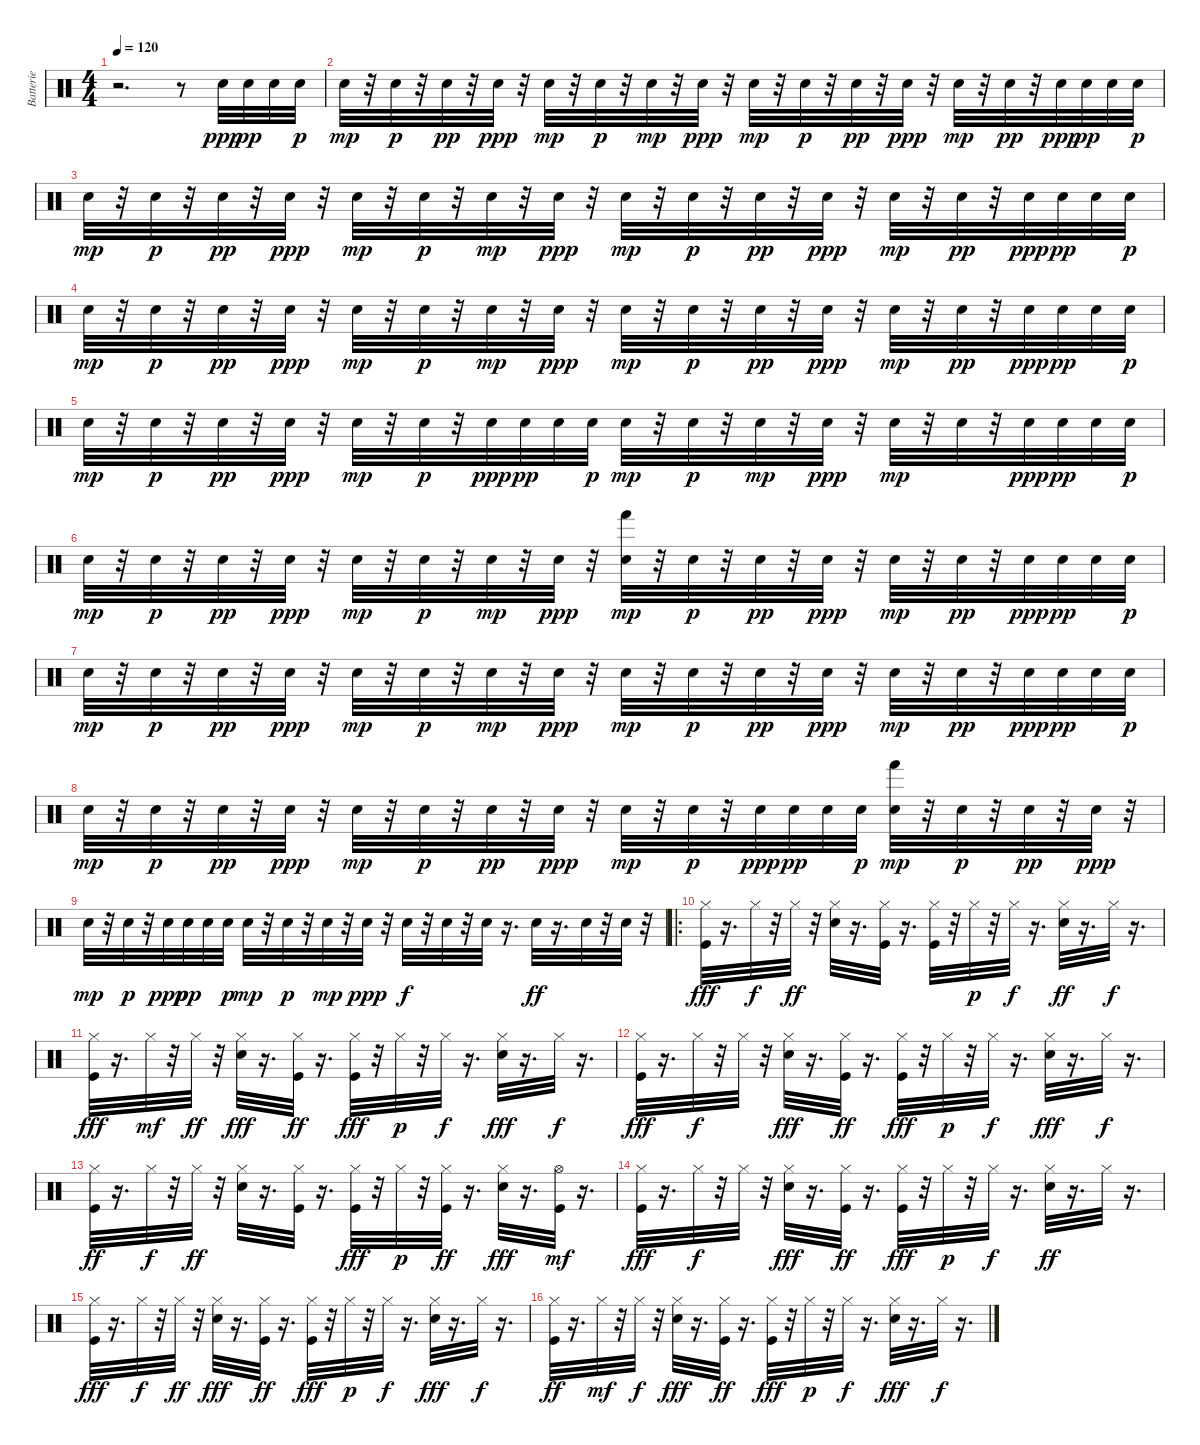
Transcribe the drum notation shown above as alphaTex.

\track ("Batterie" "Batterie") {instrument percussion}
\staff {score}
\articulation defaults
\ts (4 4)
\tempo 120
\clef neutral
\ks c
r.2{d dy ppp} r.8 "Electric Snare (hit)".32 "Electric Snare (hit)".32{dy pp} "Electric Snare (hit)".32 "Electric Snare (hit)".32{dy p} |
"Snare (hit) 2".32{dy mp} r.32 "Electric Snare (hit)".32{dy p} r.32 "Snare (hit) 2".32{dy pp} r.32 "Electric Snare (hit)".32{dy ppp} r.32 "Snare (hit) 2".32{dy mp} r.32 "Electric Snare (hit)".32{dy p} r.32 "Snare (hit) 2".32{dy mp} r.32 "Electric Snare (hit)".32{dy ppp} r.32 "Snare (hit) 2".32{dy mp} r.32 "Electric Snare (hit)".32{dy p} r.32 "Snare (hit) 2".32{dy pp} r.32 "Electric Snare (hit)".32{dy ppp} r.32 "Snare (hit) 2".32{dy mp} r.32 "Electric Snare (hit)".32{dy pp} r.32 "Electric Snare (hit)".32{dy ppp} "Electric Snare (hit)".32{dy pp} "Electric Snare (hit)".32 "Electric Snare (hit)".32{dy p} |
"Snare (hit) 2".32{dy mp} r.32 "Electric Snare (hit)".32{dy p} r.32 "Snare (hit) 2".32{dy pp} r.32 "Electric Snare (hit)".32{dy ppp} r.32 "Snare (hit) 2".32{dy mp} r.32 "Electric Snare (hit)".32{dy p} r.32 "Snare (hit) 2".32{dy mp} r.32 "Electric Snare (hit)".32{dy ppp} r.32 "Snare (hit) 2".32{dy mp} r.32 "Electric Snare (hit)".32{dy p} r.32 "Snare (hit) 2".32{dy pp} r.32 "Electric Snare (hit)".32{dy ppp} r.32 "Snare (hit) 2".32{dy mp} r.32 "Electric Snare (hit)".32{dy pp} r.32 "Electric Snare (hit)".32{dy ppp} "Electric Snare (hit)".32{dy pp} "Electric Snare (hit)".32 "Electric Snare (hit)".32{dy p} |
"Snare (hit) 2".32{dy mp} r.32 "Electric Snare (hit)".32{dy p} r.32 "Snare (hit) 2".32{dy pp} r.32 "Electric Snare (hit)".32{dy ppp} r.32 "Snare (hit) 2".32{dy mp} r.32 "Electric Snare (hit)".32{dy p} r.32 "Snare (hit) 2".32{dy mp} r.32 "Electric Snare (hit)".32{dy ppp} r.32 "Snare (hit) 2".32{dy mp} r.32 "Electric Snare (hit)".32{dy p} r.32 "Snare (hit) 2".32{dy pp} r.32 "Electric Snare (hit)".32{dy ppp} r.32 "Snare (hit) 2".32{dy mp} r.32 "Electric Snare (hit)".32{dy pp} r.32 "Electric Snare (hit)".32{dy ppp} "Electric Snare (hit)".32{dy pp} "Electric Snare (hit)".32 "Electric Snare (hit)".32{dy p} |
"Snare (hit) 2".32{dy mp} r.32 "Electric Snare (hit)".32{dy p} r.32 "Snare (hit) 2".32{dy pp} r.32 "Electric Snare (hit)".32{dy ppp} r.32 "Snare (hit) 2".32{dy mp} r.32 "Electric Snare (hit)".32{dy p} r.32 "Electric Snare (hit)".32{dy ppp} "Electric Snare (hit)".32{dy pp} "Electric Snare (hit)".32 "Electric Snare (hit)".32{dy p} "Snare (hit) 2".32{dy mp} r.32 "Electric Snare (hit)".32{dy p} r.32 "Snare (hit) 2".32{dy mp} r.32 "Electric Snare (hit)".32{dy ppp} r.32 "Snare (hit) 2".32{dy mp} r.32 "Electric Snare (hit)".32 r.32 "Electric Snare (hit)".32{dy ppp} "Electric Snare (hit)".32{dy pp} "Electric Snare (hit)".32 "Electric Snare (hit)".32{dy p} |
"Snare (hit) 2".32{dy mp} r.32 "Electric Snare (hit)".32{dy p} r.32 "Snare (hit) 2".32{dy pp} r.32 "Electric Snare (hit)".32{dy ppp} r.32 "Snare (hit) 2".32{dy mp} r.32 "Electric Snare (hit)".32{dy p} r.32 "Snare (hit) 2".32{dy mp} r.32 "Electric Snare (hit)".32{dy ppp} r.32 ("Snare (hit) 2" "Hand (hit)").32{dy mp} r.32 "Electric Snare (hit)".32{dy p} r.32 "Snare (hit) 2".32{dy pp} r.32 "Electric Snare (hit)".32{dy ppp} r.32 "Snare (hit) 2".32{dy mp} r.32 "Electric Snare (hit)".32{dy pp} r.32 "Electric Snare (hit)".32{dy ppp} "Electric Snare (hit)".32{dy pp} "Electric Snare (hit)".32 "Electric Snare (hit)".32{dy p} |
"Snare (hit) 2".32{dy mp} r.32 "Electric Snare (hit)".32{dy p} r.32 "Snare (hit) 2".32{dy pp} r.32 "Electric Snare (hit)".32{dy ppp} r.32 "Snare (hit) 2".32{dy mp} r.32 "Electric Snare (hit)".32{dy p} r.32 "Snare (hit) 2".32{dy mp} r.32 "Electric Snare (hit)".32{dy ppp} r.32 "Snare (hit) 2".32{dy mp} r.32 "Electric Snare (hit)".32{dy p} r.32 "Snare (hit) 2".32{dy pp} r.32 "Electric Snare (hit)".32{dy ppp} r.32 "Snare (hit) 2".32{dy mp} r.32 "Electric Snare (hit)".32{dy pp} r.32 "Electric Snare (hit)".32{dy ppp} "Electric Snare (hit)".32{dy pp} "Electric Snare (hit)".32 "Electric Snare (hit)".32{dy p} |
"Snare (hit) 2".32{dy mp} r.32 "Electric Snare (hit)".32{dy p} r.32 "Snare (hit) 2".32{dy pp} r.32 "Electric Snare (hit)".32{dy ppp} r.32 "Snare (hit) 2".32{dy mp} r.32 "Electric Snare (hit)".32{dy p} r.32 "Snare (hit) 2".32{dy pp} r.32 "Electric Snare (hit)".32{dy ppp} r.32 "Snare (hit) 2".32{dy mp} r.32 "Electric Snare (hit)".32{dy p} r.32 "Electric Snare (hit)".32{dy ppp} "Electric Snare (hit)".32{dy pp} "Electric Snare (hit)".32 "Electric Snare (hit)".32{dy p} ("Hand (hit)" "Snare (hit) 2").32{dy mp} r.32 "Electric Snare (hit)".32{dy p} r.32 "Snare (hit) 2".32{dy pp} r.32 "Electric Snare (hit)".32{dy ppp} r.32 |
"Snare (hit) 2".32{dy mp} r.32 "Electric Snare (hit)".32{dy p} r.32 "Electric Snare (hit)".32{dy ppp} "Electric Snare (hit)".32{dy pp} "Electric Snare (hit)".32 "Electric Snare (hit)".32{dy p} "Snare (hit) 2".32{dy mp} r.32 "Electric Snare (hit)".32{dy p} r.32 "Snare (hit) 2".32{dy mp} r.32 "Electric Snare (hit)".32{dy ppp} r.32 "Electric Snare (hit)".32{dy f} r.32 "Electric Snare (hit)".32 r.32 "Electric Snare (hit)".32 r.16{d} "Electric Snare (hit)".32{dy ff} r.16{d} "Electric Snare (hit)".32 r.32 "Electric Snare (hit)".32 r.32 |
\ro
("Hi-Hat (closed)" "Kick (hit)").32{dy fff} r.16{d} "Hi-Hat (closed)".32{dy f} r.32 "Hi-Hat (closed)".32{dy ff} r.32 ("Electric Snare (hit)" "Hi-Hat (closed)").32 r.16{d} ("Kick (hit)" "Hi-Hat (closed)").32 r.16{d} ("Kick (hit)" "Hi-Hat (closed)").32 r.32 "Hi-Hat (closed)".32{dy p} r.32 "Hi-Hat (closed)".32{dy f} r.16{d} ("Electric Snare (hit)" "Hi-Hat (closed)").32{dy ff} r.16{d} "Hi-Hat (closed)".32{dy f} r.16{d} |
("Hi-Hat (closed)" "Kick (hit)").32{dy fff} r.16{d} "Hi-Hat (closed)".32{dy mf} r.32 "Hi-Hat (closed)".32{dy ff} r.32 ("Hi-Hat (closed)" "Electric Snare (hit)").32{dy fff} r.16{d} ("Hi-Hat (closed)" "Kick (hit)").32{dy ff} r.16{d} ("Kick (hit)" "Hi-Hat (closed)").32{dy fff} r.32 "Hi-Hat (closed)".32{dy p} r.32 "Hi-Hat (closed)".32{dy f} r.16{d} ("Hi-Hat (closed)" "Electric Snare (hit)").32{dy fff} r.16{d} "Hi-Hat (closed)".32{dy f} r.16{d} |
("Hi-Hat (closed)" "Kick (hit)").32{dy fff} r.16{d} "Hi-Hat (closed)".32{dy f} r.32 "Hi-Hat (closed)".32 r.32 ("Hi-Hat (closed)" "Electric Snare (hit)").32{dy fff} r.16{d} ("Kick (hit)" "Hi-Hat (closed)").32{dy ff} r.16{d} ("Kick (hit)" "Hi-Hat (closed)").32{dy fff} r.32 "Hi-Hat (closed)".32{dy p} r.32 "Hi-Hat (closed)".32{dy f} r.16{d} ("Hi-Hat (closed)" "Electric Snare (hit)").32{dy fff} r.16{d} "Hi-Hat (closed)".32{dy f} r.16{d} |
("Kick (hit)" "Hi-Hat (closed)").32{dy ff} r.16{d} "Hi-Hat (closed)".32{dy f} r.32 "Hi-Hat (closed)".32{dy ff} r.32 ("Electric Snare (hit)" "Hi-Hat (closed)").32 r.16{d} ("Hi-Hat (closed)" "Kick (hit)").32 r.16{d} ("Hi-Hat (closed)" "Kick (hit)").32{dy fff} r.32 "Hi-Hat (closed)".32{dy p} r.32 ("Hi-Hat (closed)" "Kick (hit)").32{dy ff} r.16{d} ("Hi-Hat (closed)" "Electric Snare (hit)").32{dy fff} r.16{d} ("Kick (hit)" "Hi-Hat (open)").32{dy mf} r.16{d} |
("Hi-Hat (closed)" "Kick (hit)").32{dy fff} r.16{d} "Hi-Hat (closed)".32{dy f} r.32 "Hi-Hat (closed)".32 r.32 ("Hi-Hat (closed)" "Electric Snare (hit)").32{dy fff} r.16{d} ("Kick (hit)" "Hi-Hat (closed)").32{dy ff} r.16{d} ("Hi-Hat (closed)" "Kick (hit)").32{dy fff} r.32 "Hi-Hat (closed)".32{dy p} r.32 "Hi-Hat (closed)".32{dy f} r.16{d} ("Electric Snare (hit)" "Hi-Hat (closed)").32{dy ff} r.16{d} "Hi-Hat (closed)".32 r.16{d} |
("Hi-Hat (closed)" "Kick (hit)").32{dy fff} r.16{d} "Hi-Hat (closed)".32{dy f} r.32 "Hi-Hat (closed)".32{dy ff} r.32 ("Hi-Hat (closed)" "Electric Snare (hit)").32{dy fff} r.16{d} ("Hi-Hat (closed)" "Kick (hit)").32{dy ff} r.16{d} ("Hi-Hat (closed)" "Kick (hit)").32{dy fff} r.32 "Hi-Hat (closed)".32{dy p} r.32 "Hi-Hat (closed)".32{dy f} r.16{d} ("Electric Snare (hit)" "Hi-Hat (closed)").32{dy fff} r.16{d} "Hi-Hat (closed)".32{dy f} r.16{d} |
("Kick (hit)" "Hi-Hat (closed)").32{dy ff} r.16{d} "Hi-Hat (closed)".32{dy mf} r.32 "Hi-Hat (closed)".32{dy f} r.32 ("Hi-Hat (closed)" "Electric Snare (hit)").32{dy fff} r.16{d} ("Hi-Hat (closed)" "Kick (hit)").32{dy ff} r.16{d} ("Hi-Hat (closed)" "Kick (hit)").32{dy fff} r.32 "Hi-Hat (closed)".32{dy p} r.32 "Hi-Hat (closed)".32{dy f} r.16{d} ("Hi-Hat (closed)" "Electric Snare (hit)").32{dy fff} r.16{d} "Hi-Hat (closed)".32{dy f} r.16{d}
